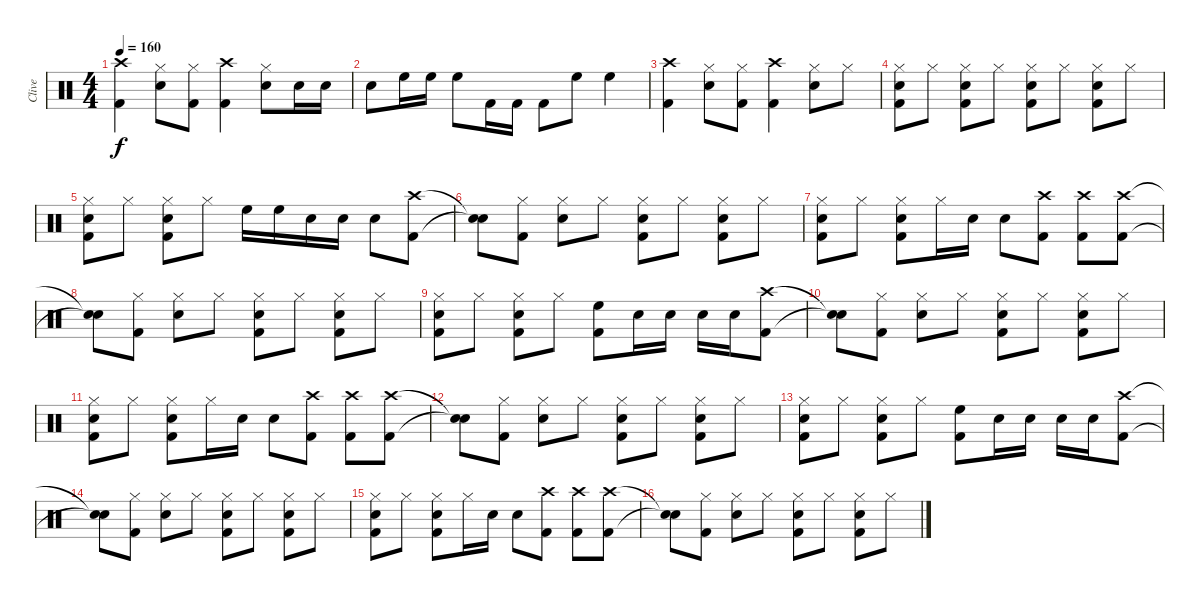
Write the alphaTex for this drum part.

\track ("Clive" "Clive") {instrument percussion}
\staff {score}
\articulation defaults
\ts (4 4)
\tempo 160
\clef neutral
\ks c
("Crash high (hit)" "Kick (hit) 2").4{dy f} ("Hi-Hat (closed)" "Snare (hit) 2").8 ("Hi-Hat (closed)" "Kick (hit) 2").8 ("Crash high (hit)" "Kick (hit) 2").4 ("Hi-Hat (closed)" "Snare (hit) 2").8 "Snare (hit) 2".16 "Snare (hit) 2".16 |
"Snare (hit) 2".8 "High Floor Tom (hit)".16 "High Floor Tom (hit)".16 "High Floor Tom (hit)".8 "Kick (hit) 2".16 "Kick (hit) 2".16 "Kick (hit) 2".8 "High Floor Tom (hit)".8 "High Floor Tom (hit)".4 |
("Crash high (hit)" "Kick (hit) 2").4 ("Hi-Hat (closed)" "Snare (hit) 2").8 ("Hi-Hat (closed)" "Kick (hit) 2").8 ("Crash high (hit)" "Kick (hit) 2").4 ("Hi-Hat (closed)" "Snare (hit) 2").8 "Hi-Hat (closed)".8 |
("Hi-Hat (closed)" "Snare (hit) 2" "Kick (hit) 2").8 "Hi-Hat (closed)".8 ("Hi-Hat (closed)" "Snare (hit) 2" "Kick (hit) 2").8 "Hi-Hat (closed)".8 ("Hi-Hat (closed)" "Snare (hit) 2" "Kick (hit) 2").8 "Hi-Hat (closed)".8 ("Hi-Hat (closed)" "Snare (hit) 2" "Kick (hit) 2").8 "Hi-Hat (closed)".8 |
("Hi-Hat (closed)" "Snare (hit) 2" "Kick (hit) 2").8 "Hi-Hat (closed)".8 ("Hi-Hat (closed)" "Snare (hit) 2" "Kick (hit) 2").8 "Hi-Hat (closed)".8 "High Floor Tom (hit)".16 "High Floor Tom (hit)".16 "Snare (hit) 2".16 "Snare (hit) 2".16 "Snare (hit) 2".8 ("Crash high (hit)" "Kick (hit) 2").8 |
("Snare (hit)"{t} "Snare (hit)"{t}).8 ("Hi-Hat (closed)" "Kick (hit) 2").8 ("Hi-Hat (closed)" "Snare (hit) 2").8 "Hi-Hat (closed)".8 ("Hi-Hat (closed)" "Snare (hit) 2" "Kick (hit) 2").8 "Hi-Hat (closed)".8 ("Hi-Hat (closed)" "Snare (hit) 2" "Kick (hit) 2").8 "Hi-Hat (closed)".8 |
("Hi-Hat (closed)" "Snare (hit) 2" "Kick (hit) 2").8 "Hi-Hat (closed)".8 ("Hi-Hat (closed)" "Snare (hit) 2" "Kick (hit) 2").8 "Hi-Hat (closed)".16 "Snare (hit) 2".16 "Snare (hit) 2".8 ("Crash high (hit)" "Kick (hit) 2").8 ("Crash high (hit)" "Kick (hit) 2").8 ("Crash high (hit)" "Kick (hit) 2").8 |
("Snare (hit)"{t} "Snare (hit)"{t}).8 ("Hi-Hat (closed)" "Kick (hit) 2").8 ("Hi-Hat (closed)" "Snare (hit) 2").8 "Hi-Hat (closed)".8 ("Hi-Hat (closed)" "Snare (hit) 2" "Kick (hit) 2").8 "Hi-Hat (closed)".8 ("Hi-Hat (closed)" "Snare (hit) 2" "Kick (hit) 2").8 "Hi-Hat (closed)".8 |
("Hi-Hat (closed)" "Snare (hit) 2" "Kick (hit) 2").8 "Hi-Hat (closed)".8 ("Hi-Hat (closed)" "Snare (hit) 2" "Kick (hit) 2").8 "Hi-Hat (closed)".8 ("High Floor Tom (hit)" "Kick (hit) 2").8 "Snare (hit) 2".16 "Snare (hit) 2".16 "Snare (hit) 2".16 "Snare (hit) 2".16 ("Crash high (hit)" "Kick (hit) 2").8 |
("Snare (hit)"{t} "Snare (hit)"{t}).8 ("Hi-Hat (closed)" "Kick (hit) 2").8 ("Hi-Hat (closed)" "Snare (hit) 2").8 "Hi-Hat (closed)".8 ("Hi-Hat (closed)" "Snare (hit) 2" "Kick (hit) 2").8 "Hi-Hat (closed)".8 ("Hi-Hat (closed)" "Snare (hit) 2" "Kick (hit) 2").8 "Hi-Hat (closed)".8 |
("Hi-Hat (closed)" "Snare (hit) 2" "Kick (hit) 2").8 "Hi-Hat (closed)".8 ("Hi-Hat (closed)" "Snare (hit) 2" "Kick (hit) 2").8 "Hi-Hat (closed)".16 "Snare (hit) 2".16 "Snare (hit) 2".8 ("Crash high (hit)" "Kick (hit) 2").8 ("Crash high (hit)" "Kick (hit) 2").8 ("Crash high (hit)" "Kick (hit) 2").8 |
("Snare (hit)"{t} "Snare (hit)"{t}).8 ("Hi-Hat (closed)" "Kick (hit) 2").8 ("Hi-Hat (closed)" "Snare (hit) 2").8 "Hi-Hat (closed)".8 ("Hi-Hat (closed)" "Snare (hit) 2" "Kick (hit) 2").8 "Hi-Hat (closed)".8 ("Hi-Hat (closed)" "Snare (hit) 2" "Kick (hit) 2").8 "Hi-Hat (closed)".8 |
("Hi-Hat (closed)" "Snare (hit) 2" "Kick (hit) 2").8 "Hi-Hat (closed)".8 ("Hi-Hat (closed)" "Snare (hit) 2" "Kick (hit) 2").8 "Hi-Hat (closed)".8 ("High Floor Tom (hit)" "Kick (hit) 2").8 "Snare (hit) 2".16 "Snare (hit) 2".16 "Snare (hit) 2".16 "Snare (hit) 2".16 ("Crash high (hit)" "Kick (hit) 2").8 |
("Snare (hit)"{t} "Snare (hit)"{t}).8 ("Hi-Hat (closed)" "Kick (hit) 2").8 ("Hi-Hat (closed)" "Snare (hit) 2").8 "Hi-Hat (closed)".8 ("Hi-Hat (closed)" "Snare (hit) 2" "Kick (hit) 2").8 "Hi-Hat (closed)".8 ("Hi-Hat (closed)" "Snare (hit) 2" "Kick (hit) 2").8 "Hi-Hat (closed)".8 |
("Hi-Hat (closed)" "Snare (hit) 2" "Kick (hit) 2").8 "Hi-Hat (closed)".8 ("Hi-Hat (closed)" "Snare (hit) 2" "Kick (hit) 2").8 "Hi-Hat (closed)".16 "Snare (hit) 2".16 "Snare (hit) 2".8 ("Crash high (hit)" "Kick (hit) 2").8 ("Crash high (hit)" "Kick (hit) 2").8 ("Crash high (hit)" "Kick (hit) 2").8 |
("Snare (hit)"{t} "Snare (hit)"{t}).8 ("Hi-Hat (closed)" "Kick (hit) 2").8 ("Hi-Hat (closed)" "Snare (hit) 2").8 "Hi-Hat (closed)".8 ("Hi-Hat (closed)" "Snare (hit) 2" "Kick (hit) 2").8 "Hi-Hat (closed)".8 ("Hi-Hat (closed)" "Snare (hit) 2" "Kick (hit) 2").8 "Hi-Hat (closed)".8
